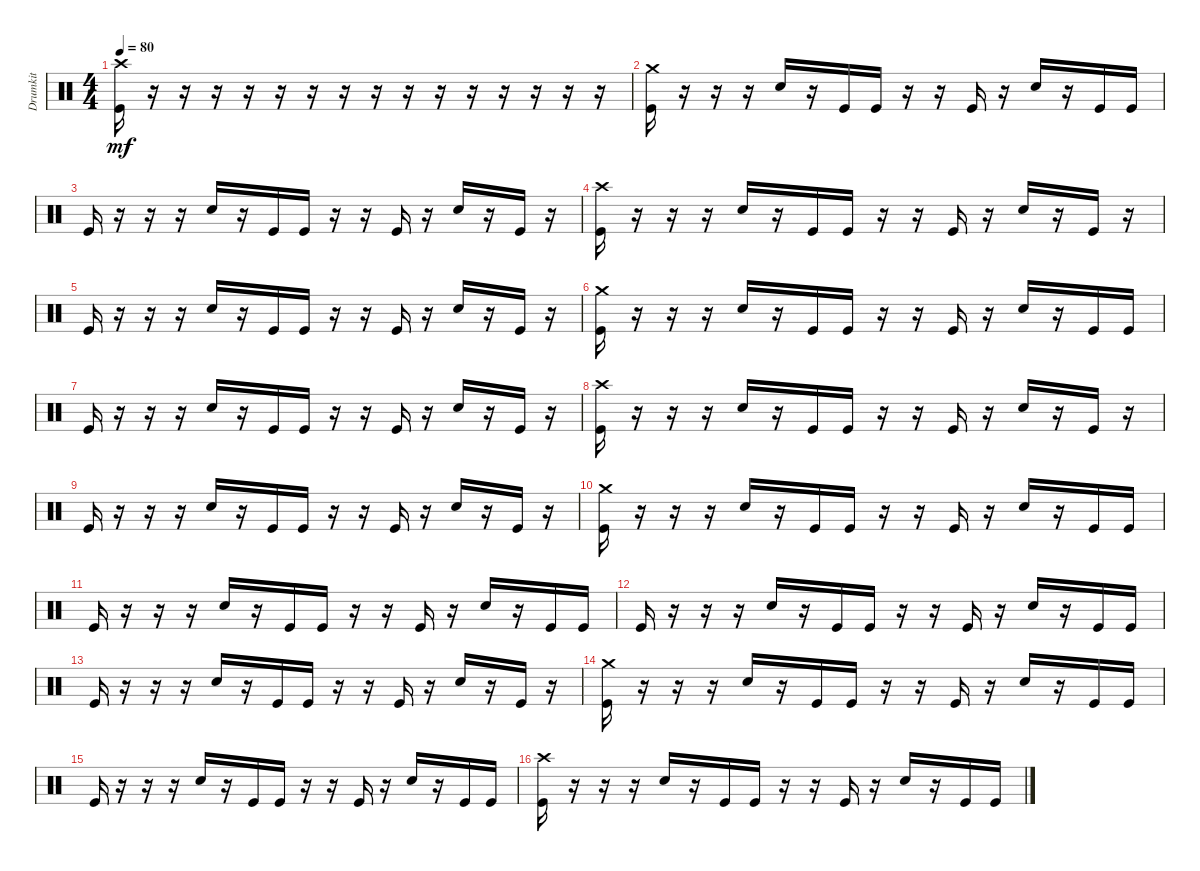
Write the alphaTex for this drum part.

\track ("Drumkit" "Drumkit") {instrument percussion}
\staff {score}
\articulation defaults
\ts (4 4)
\tempo 80
\clef neutral
\ks c
("Kick (hit)" "Crash high (hit)").16{dy mf} r.16 r.16 r.16 r.16 r.16 r.16 r.16 r.16 r.16 r.16 r.16 r.16 r.16 r.16 r.16 |
("Kick (hit)" "Crash medium (hit)").16 r.16 r.16 r.16 "Snare (hit) 2".16 r.16 "Kick (hit)".16 "Kick (hit)".16 r.16 r.16 "Kick (hit)".16 r.16 "Snare (hit) 2".16 r.16 "Kick (hit)".16 "Kick (hit)".16 |
"Kick (hit)".16 r.16 r.16 r.16 "Snare (hit) 2".16 r.16 "Kick (hit)".16 "Kick (hit)".16 r.16 r.16 "Kick (hit)".16 r.16 "Snare (hit) 2".16 r.16 "Kick (hit)".16 r.16 |
("Kick (hit)" "Crash high (hit)").16 r.16 r.16 r.16 "Snare (hit) 2".16 r.16 "Kick (hit)".16 "Kick (hit)".16 r.16 r.16 "Kick (hit)".16 r.16 "Snare (hit) 2".16 r.16 "Kick (hit)".16 r.16 |
"Kick (hit)".16 r.16 r.16 r.16 "Snare (hit) 2".16 r.16 "Kick (hit)".16 "Kick (hit)".16 r.16 r.16 "Kick (hit)".16 r.16 "Snare (hit) 2".16 r.16 "Kick (hit)".16 r.16 |
("Kick (hit)" "Crash medium (hit)").16 r.16 r.16 r.16 "Snare (hit) 2".16 r.16 "Kick (hit)".16 "Kick (hit)".16 r.16 r.16 "Kick (hit)".16 r.16 "Snare (hit) 2".16 r.16 "Kick (hit)".16 "Kick (hit)".16 |
"Kick (hit)".16 r.16 r.16 r.16 "Snare (hit) 2".16 r.16 "Kick (hit)".16 "Kick (hit)".16 r.16 r.16 "Kick (hit)".16 r.16 "Snare (hit) 2".16 r.16 "Kick (hit)".16 r.16 |
("Kick (hit)" "Crash high (hit)").16 r.16 r.16 r.16 "Snare (hit) 2".16 r.16 "Kick (hit)".16 "Kick (hit)".16 r.16 r.16 "Kick (hit)".16 r.16 "Snare (hit) 2".16 r.16 "Kick (hit)".16 r.16 |
"Kick (hit)".16 r.16 r.16 r.16 "Snare (hit) 2".16 r.16 "Kick (hit)".16 "Kick (hit)".16 r.16 r.16 "Kick (hit)".16 r.16 "Snare (hit) 2".16 r.16 "Kick (hit)".16 r.16 |
("Kick (hit)" "Crash medium (hit)").16 r.16 r.16 r.16 "Snare (hit) 2".16 r.16 "Kick (hit)".16 "Kick (hit)".16 r.16 r.16 "Kick (hit)".16 r.16 "Snare (hit) 2".16 r.16 "Kick (hit)".16 "Kick (hit)".16 |
"Kick (hit)".16 r.16 r.16 r.16 "Snare (hit) 2".16 r.16 "Kick (hit)".16 "Kick (hit)".16 r.16 r.16 "Kick (hit)".16 r.16 "Snare (hit) 2".16 r.16 "Kick (hit)".16 "Kick (hit)".16 |
"Kick (hit)".16 r.16 r.16 r.16 "Snare (hit) 2".16 r.16 "Kick (hit)".16 "Kick (hit)".16 r.16 r.16 "Kick (hit)".16 r.16 "Snare (hit) 2".16 r.16 "Kick (hit)".16 "Kick (hit)".16 |
"Kick (hit)".16 r.16 r.16 r.16 "Snare (hit) 2".16 r.16 "Kick (hit)".16 "Kick (hit)".16 r.16 r.16 "Kick (hit)".16 r.16 "Snare (hit) 2".16 r.16 "Kick (hit)".16 r.16 |
("Kick (hit)" "Crash medium (hit)").16 r.16 r.16 r.16 "Snare (hit) 2".16 r.16 "Kick (hit)".16 "Kick (hit)".16 r.16 r.16 "Kick (hit)".16 r.16 "Snare (hit) 2".16 r.16 "Kick (hit)".16 "Kick (hit)".16 |
"Kick (hit)".16 r.16 r.16 r.16 "Snare (hit) 2".16 r.16 "Kick (hit)".16 "Kick (hit)".16 r.16 r.16 "Kick (hit)".16 r.16 "Snare (hit) 2".16 r.16 "Kick (hit)".16 "Kick (hit)".16 |
("Kick (hit)" "Crash high (hit)").16 r.16 r.16 r.16 "Snare (hit) 2".16 r.16 "Kick (hit)".16 "Kick (hit)".16 r.16 r.16 "Kick (hit)".16 r.16 "Snare (hit) 2".16 r.16 "Kick (hit)".16 "Kick (hit)".16
